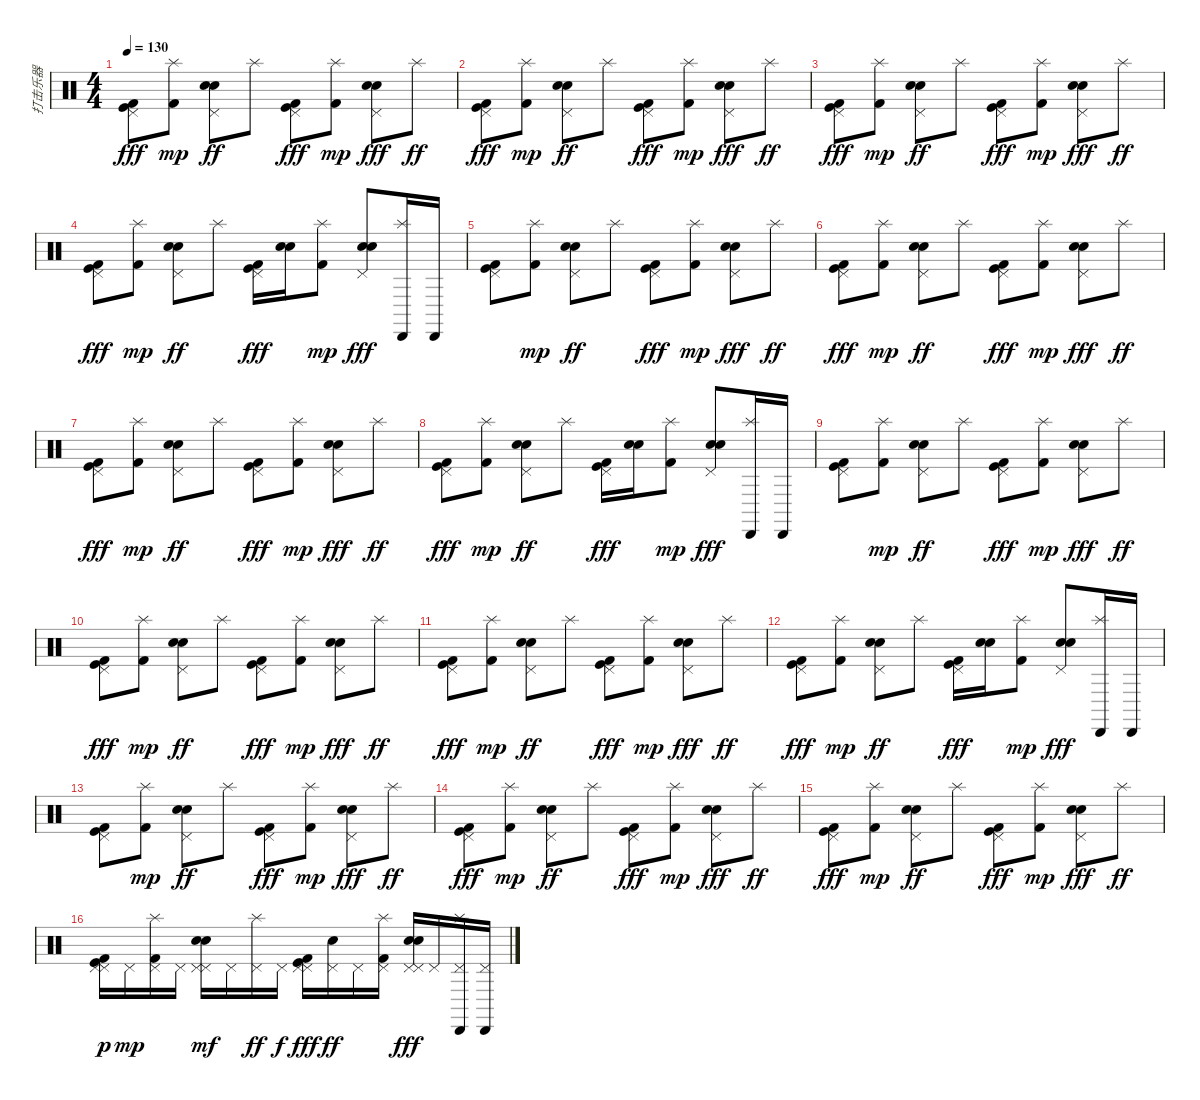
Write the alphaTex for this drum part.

\track ("打击乐器" "打击乐器") {instrument percussion}
\staff {score}
\articulation defaults
\ts (4 4)
\tempo 130
\clef neutral
\ks c
("Pedal Hi-Hat (hit)" "Kick (hit)" "Kick (hit) 2").8{dy fff} ("Splash (hit)" "Kick (hit) 2").8{dy mp} ("Pedal Hi-Hat (hit)" "Electric Snare (hit)" "Snare (hit) 2").8{dy ff} "Splash (hit)".8 ("Pedal Hi-Hat (hit)" "Kick (hit)" "Kick (hit) 2").8{dy fff} ("Splash (hit)" "Kick (hit) 2").8{dy mp} ("Pedal Hi-Hat (hit)" "Electric Snare (hit)" "Snare (hit) 2").8{dy fff} "Splash (hit)".8{dy ff} |
("Pedal Hi-Hat (hit)" "Kick (hit)" "Kick (hit) 2").8{dy fff} ("Splash (hit)" "Kick (hit) 2").8{dy mp} ("Pedal Hi-Hat (hit)" "Electric Snare (hit)" "Snare (hit) 2").8{dy ff} "Splash (hit)".8 ("Pedal Hi-Hat (hit)" "Kick (hit)" "Kick (hit) 2").8{dy fff} ("Splash (hit)" "Kick (hit) 2").8{dy mp} ("Pedal Hi-Hat (hit)" "Electric Snare (hit)" "Snare (hit) 2").8{dy fff} "Splash (hit)".8{dy ff} |
("Pedal Hi-Hat (hit)" "Kick (hit)" "Kick (hit) 2").8{dy fff} ("Splash (hit)" "Kick (hit) 2").8{dy mp} ("Pedal Hi-Hat (hit)" "Electric Snare (hit)" "Snare (hit) 2").8{dy ff} "Splash (hit)".8 ("Pedal Hi-Hat (hit)" "Kick (hit)" "Kick (hit) 2").8{dy fff} ("Splash (hit)" "Kick (hit) 2").8{dy mp} ("Pedal Hi-Hat (hit)" "Electric Snare (hit)" "Snare (hit) 2").8{dy fff} "Splash (hit)".8{dy ff} |
("Pedal Hi-Hat (hit)" "Kick (hit)" "Kick (hit) 2").8{dy fff} ("Splash (hit)" "Kick (hit) 2").8{dy mp} ("Pedal Hi-Hat (hit)" "Electric Snare (hit)" "Snare (hit) 2").8{dy ff} "Splash (hit)".8 ("Pedal Hi-Hat (hit)" "Kick (hit)" "Kick (hit) 2").16{dy fff} ("Electric Snare (hit)" "Snare (hit) 2").16 ("Splash (hit)" "Kick (hit) 2").8{dy mp} ("Pedal Hi-Hat (hit)" "Electric Snare (hit)" "Snare (hit) 2").8{dy fff} ("Splash (hit)" "Cabasa (hit)").16 "Cabasa (hit)".16 |
("Pedal Hi-Hat (hit)" "Kick (hit)" "Kick (hit) 2").8 ("Splash (hit)" "Kick (hit) 2").8{dy mp} ("Pedal Hi-Hat (hit)" "Electric Snare (hit)" "Snare (hit) 2").8{dy ff} "Splash (hit)".8 ("Pedal Hi-Hat (hit)" "Kick (hit)" "Kick (hit) 2").8{dy fff} ("Splash (hit)" "Kick (hit) 2").8{dy mp} ("Pedal Hi-Hat (hit)" "Electric Snare (hit)" "Snare (hit) 2").8{dy fff} "Splash (hit)".8{dy ff} |
("Pedal Hi-Hat (hit)" "Kick (hit)" "Kick (hit) 2").8{dy fff} ("Splash (hit)" "Kick (hit) 2").8{dy mp} ("Pedal Hi-Hat (hit)" "Electric Snare (hit)" "Snare (hit) 2").8{dy ff} "Splash (hit)".8 ("Pedal Hi-Hat (hit)" "Kick (hit)" "Kick (hit) 2").8{dy fff} ("Splash (hit)" "Kick (hit) 2").8{dy mp} ("Pedal Hi-Hat (hit)" "Electric Snare (hit)" "Snare (hit) 2").8{dy fff} "Splash (hit)".8{dy ff} |
("Pedal Hi-Hat (hit)" "Kick (hit)" "Kick (hit) 2").8{dy fff} ("Splash (hit)" "Kick (hit) 2").8{dy mp} ("Pedal Hi-Hat (hit)" "Electric Snare (hit)" "Snare (hit) 2").8{dy ff} "Splash (hit)".8 ("Pedal Hi-Hat (hit)" "Kick (hit)" "Kick (hit) 2").8{dy fff} ("Splash (hit)" "Kick (hit) 2").8{dy mp} ("Pedal Hi-Hat (hit)" "Electric Snare (hit)" "Snare (hit) 2").8{dy fff} "Splash (hit)".8{dy ff} |
("Pedal Hi-Hat (hit)" "Kick (hit)" "Kick (hit) 2").8{dy fff} ("Splash (hit)" "Kick (hit) 2").8{dy mp} ("Pedal Hi-Hat (hit)" "Electric Snare (hit)" "Snare (hit) 2").8{dy ff} "Splash (hit)".8 ("Pedal Hi-Hat (hit)" "Kick (hit)" "Kick (hit) 2").16{dy fff} ("Electric Snare (hit)" "Snare (hit) 2").16 ("Splash (hit)" "Kick (hit) 2").8{dy mp} ("Pedal Hi-Hat (hit)" "Electric Snare (hit)" "Snare (hit) 2").8{dy fff} ("Splash (hit)" "Cabasa (hit)").16 "Cabasa (hit)".16 |
("Pedal Hi-Hat (hit)" "Kick (hit)" "Kick (hit) 2").8 ("Splash (hit)" "Kick (hit) 2").8{dy mp} ("Pedal Hi-Hat (hit)" "Electric Snare (hit)" "Snare (hit) 2").8{dy ff} "Splash (hit)".8 ("Pedal Hi-Hat (hit)" "Kick (hit)" "Kick (hit) 2").8{dy fff} ("Splash (hit)" "Kick (hit) 2").8{dy mp} ("Pedal Hi-Hat (hit)" "Electric Snare (hit)" "Snare (hit) 2").8{dy fff} "Splash (hit)".8{dy ff} |
("Pedal Hi-Hat (hit)" "Kick (hit)" "Kick (hit) 2").8{dy fff} ("Splash (hit)" "Kick (hit) 2").8{dy mp} ("Pedal Hi-Hat (hit)" "Electric Snare (hit)" "Snare (hit) 2").8{dy ff} "Splash (hit)".8 ("Pedal Hi-Hat (hit)" "Kick (hit)" "Kick (hit) 2").8{dy fff} ("Splash (hit)" "Kick (hit) 2").8{dy mp} ("Pedal Hi-Hat (hit)" "Electric Snare (hit)" "Snare (hit) 2").8{dy fff} "Splash (hit)".8{dy ff} |
("Pedal Hi-Hat (hit)" "Kick (hit)" "Kick (hit) 2").8{dy fff} ("Splash (hit)" "Kick (hit) 2").8{dy mp} ("Pedal Hi-Hat (hit)" "Electric Snare (hit)" "Snare (hit) 2").8{dy ff} "Splash (hit)".8 ("Pedal Hi-Hat (hit)" "Kick (hit)" "Kick (hit) 2").8{dy fff} ("Splash (hit)" "Kick (hit) 2").8{dy mp} ("Pedal Hi-Hat (hit)" "Electric Snare (hit)" "Snare (hit) 2").8{dy fff} "Splash (hit)".8{dy ff} |
("Pedal Hi-Hat (hit)" "Kick (hit)" "Kick (hit) 2").8{dy fff} ("Splash (hit)" "Kick (hit) 2").8{dy mp} ("Pedal Hi-Hat (hit)" "Electric Snare (hit)" "Snare (hit) 2").8{dy ff} "Splash (hit)".8 ("Pedal Hi-Hat (hit)" "Kick (hit)" "Kick (hit) 2").16{dy fff} ("Electric Snare (hit)" "Snare (hit) 2").16 ("Splash (hit)" "Kick (hit) 2").8{dy mp} ("Pedal Hi-Hat (hit)" "Electric Snare (hit)" "Snare (hit) 2").8{dy fff} ("Splash (hit)" "Cabasa (hit)").16 "Cabasa (hit)".16 |
("Pedal Hi-Hat (hit)" "Kick (hit)" "Kick (hit) 2").8 ("Splash (hit)" "Kick (hit) 2").8{dy mp} ("Pedal Hi-Hat (hit)" "Electric Snare (hit)" "Snare (hit) 2").8{dy ff} "Splash (hit)".8 ("Pedal Hi-Hat (hit)" "Kick (hit)" "Kick (hit) 2").8{dy fff} ("Splash (hit)" "Kick (hit) 2").8{dy mp} ("Pedal Hi-Hat (hit)" "Electric Snare (hit)" "Snare (hit) 2").8{dy fff} "Splash (hit)".8{dy ff} |
("Pedal Hi-Hat (hit)" "Kick (hit)" "Kick (hit) 2").8{dy fff} ("Splash (hit)" "Kick (hit) 2").8{dy mp} ("Pedal Hi-Hat (hit)" "Electric Snare (hit)" "Snare (hit) 2").8{dy ff} "Splash (hit)".8 ("Pedal Hi-Hat (hit)" "Kick (hit)" "Kick (hit) 2").8{dy fff} ("Splash (hit)" "Kick (hit) 2").8{dy mp} ("Pedal Hi-Hat (hit)" "Electric Snare (hit)" "Snare (hit) 2").8{dy fff} "Splash (hit)".8{dy ff} |
("Pedal Hi-Hat (hit)" "Kick (hit)" "Kick (hit) 2").8{dy fff} ("Splash (hit)" "Kick (hit) 2").8{dy mp} ("Pedal Hi-Hat (hit)" "Electric Snare (hit)" "Snare (hit) 2").8{dy ff} "Splash (hit)".8 ("Pedal Hi-Hat (hit)" "Kick (hit)" "Kick (hit) 2").8{dy fff} ("Splash (hit)" "Kick (hit) 2").8{dy mp} ("Pedal Hi-Hat (hit)" "Electric Snare (hit)" "Snare (hit) 2").8{dy fff} "Splash (hit)".8{dy ff} |
("Pedal Hi-Hat (hit)" "Kick (hit)" "Kick (hit) 2" "Pedal Hi-Hat (hit)").16{dy p} "Pedal Hi-Hat (hit)".16{dy mp} ("Splash (hit)" "Kick (hit) 2" "Pedal Hi-Hat (hit)").16 "Pedal Hi-Hat (hit)".16 ("Pedal Hi-Hat (hit)" "Electric Snare (hit)" "Snare (hit) 2" "Pedal Hi-Hat (hit)").16{dy mf} "Pedal Hi-Hat (hit)".16 ("Splash (hit)" "Pedal Hi-Hat (hit)").16{dy ff} "Pedal Hi-Hat (hit)".16{dy f} ("Pedal Hi-Hat (hit)" "Kick (hit)" "Kick (hit) 2" "Pedal Hi-Hat (hit)").16{dy fff} ("Electric Snare (hit)" "Pedal Hi-Hat (hit)").16{dy ff} "Pedal Hi-Hat (hit)".16 ("Splash (hit)" "Kick (hit) 2" "Pedal Hi-Hat (hit)").16 ("Pedal Hi-Hat (hit)" "Electric Snare (hit)" "Snare (hit) 2" "Pedal Hi-Hat (hit)").16{dy fff} "Pedal Hi-Hat (hit)".16 ("Splash (hit)" "Cabasa (hit)" "Pedal Hi-Hat (hit)").16 ("Cabasa (hit)" "Pedal Hi-Hat (hit)").16
